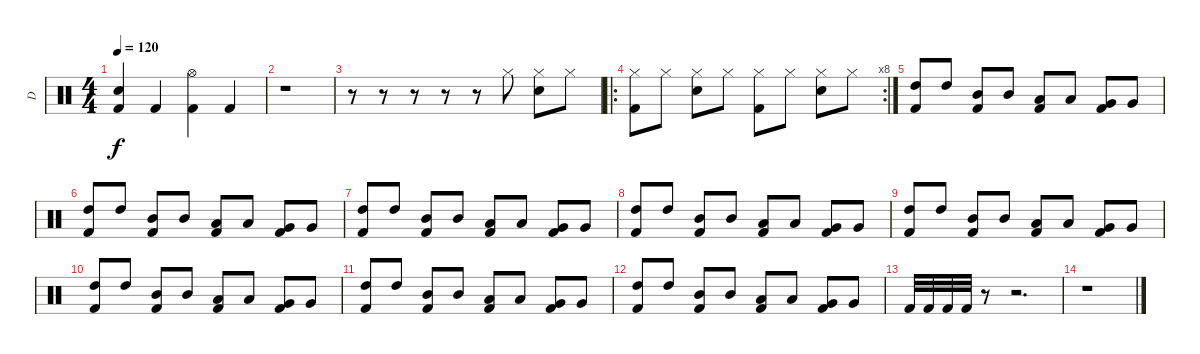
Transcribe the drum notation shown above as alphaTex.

\track ("D" "D") {instrument percussion}
\staff {score}
\articulation defaults
\ts (4 4)
\tempo 120
\clef neutral
\ks c
("Electric Snare (hit)" "Kick (hit) 2").4{dy f} "Kick (hit) 2".4 ("Hi-Hat (open)" "Kick (hit) 2").4 "Kick (hit) 2".4 |
r.1 |
r.8 r.8 r.8 r.8 r.8 "Hi-Hat (closed)".8 ("Hi-Hat (closed)" "Electric Snare (hit)").8 "Hi-Hat (closed)".8 |
\ro
\rc 8
("Hi-Hat (closed)" "Kick (hit) 2").8 "Hi-Hat (closed)".8 ("Electric Snare (hit)" "Hi-Hat (closed)").8 "Hi-Hat (closed)".8 ("Hi-Hat (closed)" "Kick (hit) 2").8 "Hi-Hat (closed)".8 ("Electric Snare (hit)" "Hi-Hat (closed)").8 "Hi-Hat (closed)".8 |
("Kick (hit) 2" "High Tom (hit)").8 "High Tom (hit)".8 ("Kick (hit) 2" "Mid Tom (hit)").8 "Mid Tom (hit)".8 ("Kick (hit) 2" "Low Tom (hit)").8 "Low Tom (hit)".8 ("Kick (hit) 2" "Very Low Tom (hit)").8 "Very Low Tom (hit)".8 |
("Kick (hit) 2" "High Tom (hit)").8 "High Tom (hit)".8 ("Kick (hit) 2" "Mid Tom (hit)").8 "Mid Tom (hit)".8 ("Kick (hit) 2" "Low Tom (hit)").8 "Low Tom (hit)".8 ("Kick (hit) 2" "Very Low Tom (hit)").8 "Very Low Tom (hit)".8 |
("Kick (hit) 2" "High Tom (hit)").8 "High Tom (hit)".8 ("Kick (hit) 2" "Mid Tom (hit)").8 "Mid Tom (hit)".8 ("Kick (hit) 2" "Low Tom (hit)").8 "Low Tom (hit)".8 ("Kick (hit) 2" "Very Low Tom (hit)").8 "Very Low Tom (hit)".8 |
("Kick (hit) 2" "High Tom (hit)").8 "High Tom (hit)".8 ("Kick (hit) 2" "Mid Tom (hit)").8 "Mid Tom (hit)".8 ("Kick (hit) 2" "Low Tom (hit)").8 "Low Tom (hit)".8 ("Kick (hit) 2" "Very Low Tom (hit)").8 "Very Low Tom (hit)".8 |
("Kick (hit) 2" "High Tom (hit)").8 "High Tom (hit)".8 ("Kick (hit) 2" "Mid Tom (hit)").8 "Mid Tom (hit)".8 ("Kick (hit) 2" "Low Tom (hit)").8 "Low Tom (hit)".8 ("Kick (hit) 2" "Very Low Tom (hit)").8 "Very Low Tom (hit)".8 |
("Kick (hit) 2" "High Tom (hit)").8 "High Tom (hit)".8 ("Kick (hit) 2" "Mid Tom (hit)").8 "Mid Tom (hit)".8 ("Kick (hit) 2" "Low Tom (hit)").8 "Low Tom (hit)".8 ("Kick (hit) 2" "Very Low Tom (hit)").8 "Very Low Tom (hit)".8 |
("Kick (hit) 2" "High Tom (hit)").8 "High Tom (hit)".8 ("Kick (hit) 2" "Mid Tom (hit)").8 "Mid Tom (hit)".8 ("Kick (hit) 2" "Low Tom (hit)").8 "Low Tom (hit)".8 ("Kick (hit) 2" "Very Low Tom (hit)").8 "Very Low Tom (hit)".8 |
("Kick (hit) 2" "High Tom (hit)").8 "High Tom (hit)".8 ("Kick (hit) 2" "Mid Tom (hit)").8 "Mid Tom (hit)".8 ("Kick (hit) 2" "Low Tom (hit)").8 "Low Tom (hit)".8 ("Kick (hit) 2" "Very Low Tom (hit)").8 "Very Low Tom (hit)".8 |
"Kick (hit) 2".32 "Kick (hit) 2".32 "Kick (hit) 2".32 "Kick (hit) 2".32 r.8 r.2{d} |
r.1
